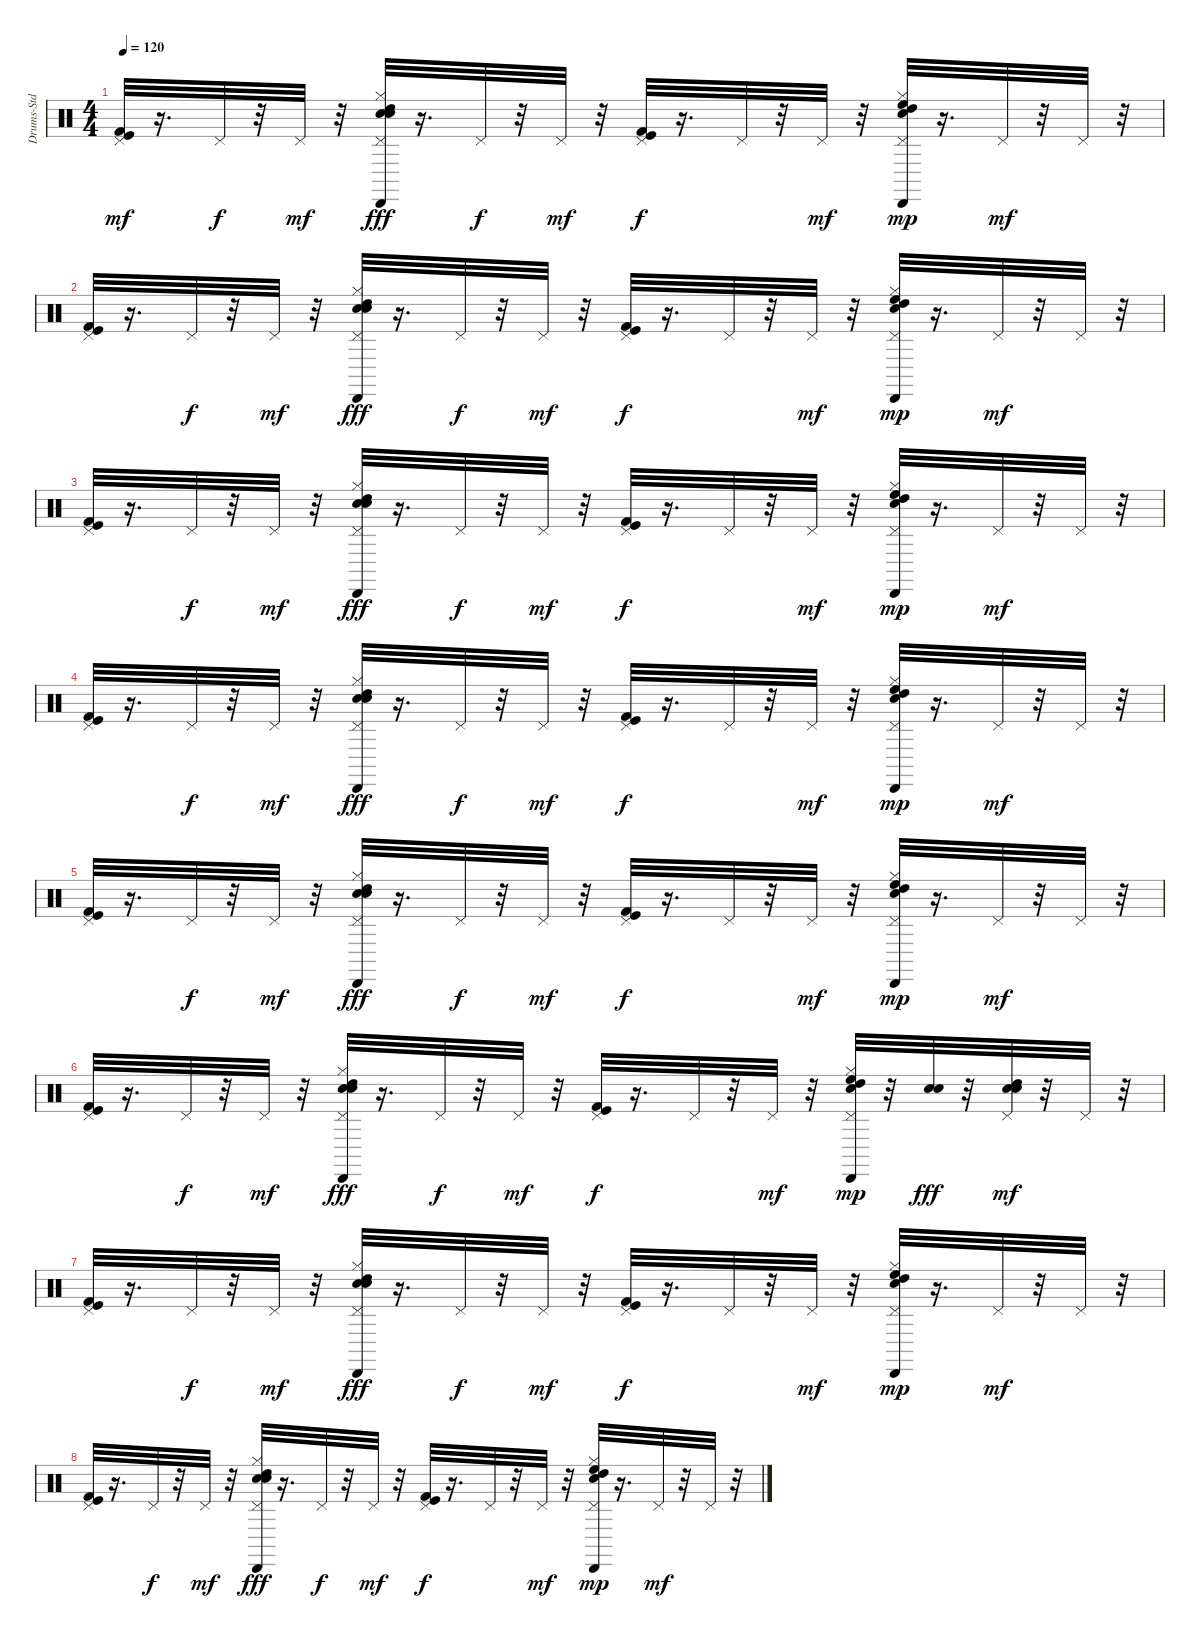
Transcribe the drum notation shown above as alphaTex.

\track ("Drums-Std" "Drums-Std") {instrument percussion}
\staff {score}
\articulation defaults
\ts (4 4)
\tempo 120
\clef neutral
\ks c
("Pedal Hi-Hat (hit)" "Kick (hit) 2" "Kick (hit)").32{dy mf} r.16{d} "Pedal Hi-Hat (hit)".32{dy f} r.32 "Pedal Hi-Hat (hit)".32{dy mf} r.32 ("Snare (hit) 2" "High Tom (hit)" "Cabasa (hit)" "Hi-Hat (closed)" "Pedal Hi-Hat (hit)" "Electric Snare (hit)").32{dy fff} r.16{d} "Pedal Hi-Hat (hit)".32{dy f} r.32 "Pedal Hi-Hat (hit)".32{dy mf} r.32 ("Pedal Hi-Hat (hit)" "Kick (hit) 2" "Kick (hit)").32{dy f} r.16{d} "Pedal Hi-Hat (hit)".32 r.32 "Pedal Hi-Hat (hit)".32{dy mf} r.32 ("Snare (hit) 2" "High Floor Tom (hit)" "High Tom (hit)" "Cabasa (hit)" "Hi-Hat (closed)" "Pedal Hi-Hat (hit)").32{dy mp} r.16{d} "Pedal Hi-Hat (hit)".32{dy mf} r.32 "Pedal Hi-Hat (hit)".32 r.32 |
("Pedal Hi-Hat (hit)" "Kick (hit) 2" "Kick (hit)").32 r.16{d} "Pedal Hi-Hat (hit)".32{dy f} r.32 "Pedal Hi-Hat (hit)".32{dy mf} r.32 ("Snare (hit) 2" "High Tom (hit)" "Cabasa (hit)" "Hi-Hat (closed)" "Pedal Hi-Hat (hit)" "Electric Snare (hit)").32{dy fff} r.16{d} "Pedal Hi-Hat (hit)".32{dy f} r.32 "Pedal Hi-Hat (hit)".32{dy mf} r.32 ("Pedal Hi-Hat (hit)" "Kick (hit) 2" "Kick (hit)").32{dy f} r.16{d} "Pedal Hi-Hat (hit)".32 r.32 "Pedal Hi-Hat (hit)".32{dy mf} r.32 ("Snare (hit) 2" "High Floor Tom (hit)" "High Tom (hit)" "Cabasa (hit)" "Hi-Hat (closed)" "Pedal Hi-Hat (hit)").32{dy mp} r.16{d} "Pedal Hi-Hat (hit)".32{dy mf} r.32 "Pedal Hi-Hat (hit)".32 r.32 |
("Pedal Hi-Hat (hit)" "Kick (hit) 2" "Kick (hit)").32 r.16{d} "Pedal Hi-Hat (hit)".32{dy f} r.32 "Pedal Hi-Hat (hit)".32{dy mf} r.32 ("Snare (hit) 2" "High Tom (hit)" "Cabasa (hit)" "Hi-Hat (closed)" "Pedal Hi-Hat (hit)" "Electric Snare (hit)").32{dy fff} r.16{d} "Pedal Hi-Hat (hit)".32{dy f} r.32 "Pedal Hi-Hat (hit)".32{dy mf} r.32 ("Pedal Hi-Hat (hit)" "Kick (hit) 2" "Kick (hit)").32{dy f} r.16{d} "Pedal Hi-Hat (hit)".32 r.32 "Pedal Hi-Hat (hit)".32{dy mf} r.32 ("Snare (hit) 2" "High Floor Tom (hit)" "High Tom (hit)" "Cabasa (hit)" "Hi-Hat (closed)" "Pedal Hi-Hat (hit)").32{dy mp} r.16{d} "Pedal Hi-Hat (hit)".32{dy mf} r.32 "Pedal Hi-Hat (hit)".32 r.32 |
("Pedal Hi-Hat (hit)" "Kick (hit) 2" "Kick (hit)").32 r.16{d} "Pedal Hi-Hat (hit)".32{dy f} r.32 "Pedal Hi-Hat (hit)".32{dy mf} r.32 ("Snare (hit) 2" "High Tom (hit)" "Cabasa (hit)" "Hi-Hat (closed)" "Pedal Hi-Hat (hit)" "Electric Snare (hit)").32{dy fff} r.16{d} "Pedal Hi-Hat (hit)".32{dy f} r.32 "Pedal Hi-Hat (hit)".32{dy mf} r.32 ("Pedal Hi-Hat (hit)" "Kick (hit) 2" "Kick (hit)").32{dy f} r.16{d} "Pedal Hi-Hat (hit)".32 r.32 "Pedal Hi-Hat (hit)".32{dy mf} r.32 ("Snare (hit) 2" "High Floor Tom (hit)" "High Tom (hit)" "Cabasa (hit)" "Hi-Hat (closed)" "Pedal Hi-Hat (hit)").32{dy mp} r.16{d} "Pedal Hi-Hat (hit)".32{dy mf} r.32 "Pedal Hi-Hat (hit)".32 r.32 |
("Pedal Hi-Hat (hit)" "Kick (hit) 2" "Kick (hit)").32 r.16{d} "Pedal Hi-Hat (hit)".32{dy f} r.32 "Pedal Hi-Hat (hit)".32{dy mf} r.32 ("Snare (hit) 2" "High Tom (hit)" "Cabasa (hit)" "Hi-Hat (closed)" "Pedal Hi-Hat (hit)" "Electric Snare (hit)").32{dy fff} r.16{d} "Pedal Hi-Hat (hit)".32{dy f} r.32 "Pedal Hi-Hat (hit)".32{dy mf} r.32 ("Pedal Hi-Hat (hit)" "Kick (hit) 2" "Kick (hit)").32{dy f} r.16{d} "Pedal Hi-Hat (hit)".32 r.32 "Pedal Hi-Hat (hit)".32{dy mf} r.32 ("Snare (hit) 2" "High Floor Tom (hit)" "High Tom (hit)" "Cabasa (hit)" "Hi-Hat (closed)" "Pedal Hi-Hat (hit)").32{dy mp} r.16{d} "Pedal Hi-Hat (hit)".32{dy mf} r.32 "Pedal Hi-Hat (hit)".32 r.32 |
("Pedal Hi-Hat (hit)" "Kick (hit) 2" "Kick (hit)").32 r.16{d} "Pedal Hi-Hat (hit)".32{dy f} r.32 "Pedal Hi-Hat (hit)".32{dy mf} r.32 ("Snare (hit) 2" "High Tom (hit)" "Cabasa (hit)" "Hi-Hat (closed)" "Pedal Hi-Hat (hit)" "Electric Snare (hit)").32{dy fff} r.16{d} "Pedal Hi-Hat (hit)".32{dy f} r.32 "Pedal Hi-Hat (hit)".32{dy mf} r.32 ("Pedal Hi-Hat (hit)" "Kick (hit) 2" "Kick (hit)").32{dy f} r.16{d} "Pedal Hi-Hat (hit)".32 r.32 "Pedal Hi-Hat (hit)".32{dy mf} r.32 ("Snare (hit) 2" "High Floor Tom (hit)" "High Tom (hit)" "Cabasa (hit)" "Hi-Hat (closed)" "Pedal Hi-Hat (hit)").32{dy mp} r.32 ("Snare (hit) 2" "Electric Snare (hit)").32{dy fff} r.32 ("Snare (hit) 2" "High Tom (hit)" "Electric Snare (hit)" "Pedal Hi-Hat (hit)").32{dy mf} r.32 "Pedal Hi-Hat (hit)".32 r.32 |
("Pedal Hi-Hat (hit)" "Kick (hit) 2" "Kick (hit)").32 r.16{d} "Pedal Hi-Hat (hit)".32{dy f} r.32 "Pedal Hi-Hat (hit)".32{dy mf} r.32 ("Snare (hit) 2" "High Tom (hit)" "Cabasa (hit)" "Hi-Hat (closed)" "Pedal Hi-Hat (hit)" "Electric Snare (hit)").32{dy fff} r.16{d} "Pedal Hi-Hat (hit)".32{dy f} r.32 "Pedal Hi-Hat (hit)".32{dy mf} r.32 ("Pedal Hi-Hat (hit)" "Kick (hit) 2" "Kick (hit)").32{dy f} r.16{d} "Pedal Hi-Hat (hit)".32 r.32 "Pedal Hi-Hat (hit)".32{dy mf} r.32 ("Snare (hit) 2" "High Floor Tom (hit)" "High Tom (hit)" "Cabasa (hit)" "Hi-Hat (closed)" "Pedal Hi-Hat (hit)").32{dy mp} r.16{d} "Pedal Hi-Hat (hit)".32{dy mf} r.32 "Pedal Hi-Hat (hit)".32 r.32 |
("Pedal Hi-Hat (hit)" "Kick (hit) 2" "Kick (hit)").32 r.16{d} "Pedal Hi-Hat (hit)".32{dy f} r.32 "Pedal Hi-Hat (hit)".32{dy mf} r.32 ("Snare (hit) 2" "High Tom (hit)" "Cabasa (hit)" "Hi-Hat (closed)" "Pedal Hi-Hat (hit)" "Electric Snare (hit)").32{dy fff} r.16{d} "Pedal Hi-Hat (hit)".32{dy f} r.32 "Pedal Hi-Hat (hit)".32{dy mf} r.32 ("Pedal Hi-Hat (hit)" "Kick (hit) 2" "Kick (hit)").32{dy f} r.16{d} "Pedal Hi-Hat (hit)".32 r.32 "Pedal Hi-Hat (hit)".32{dy mf} r.32 ("Snare (hit) 2" "High Floor Tom (hit)" "High Tom (hit)" "Cabasa (hit)" "Hi-Hat (closed)" "Pedal Hi-Hat (hit)").32{dy mp} r.16{d} "Pedal Hi-Hat (hit)".32{dy mf} r.32 "Pedal Hi-Hat (hit)".32 r.32
